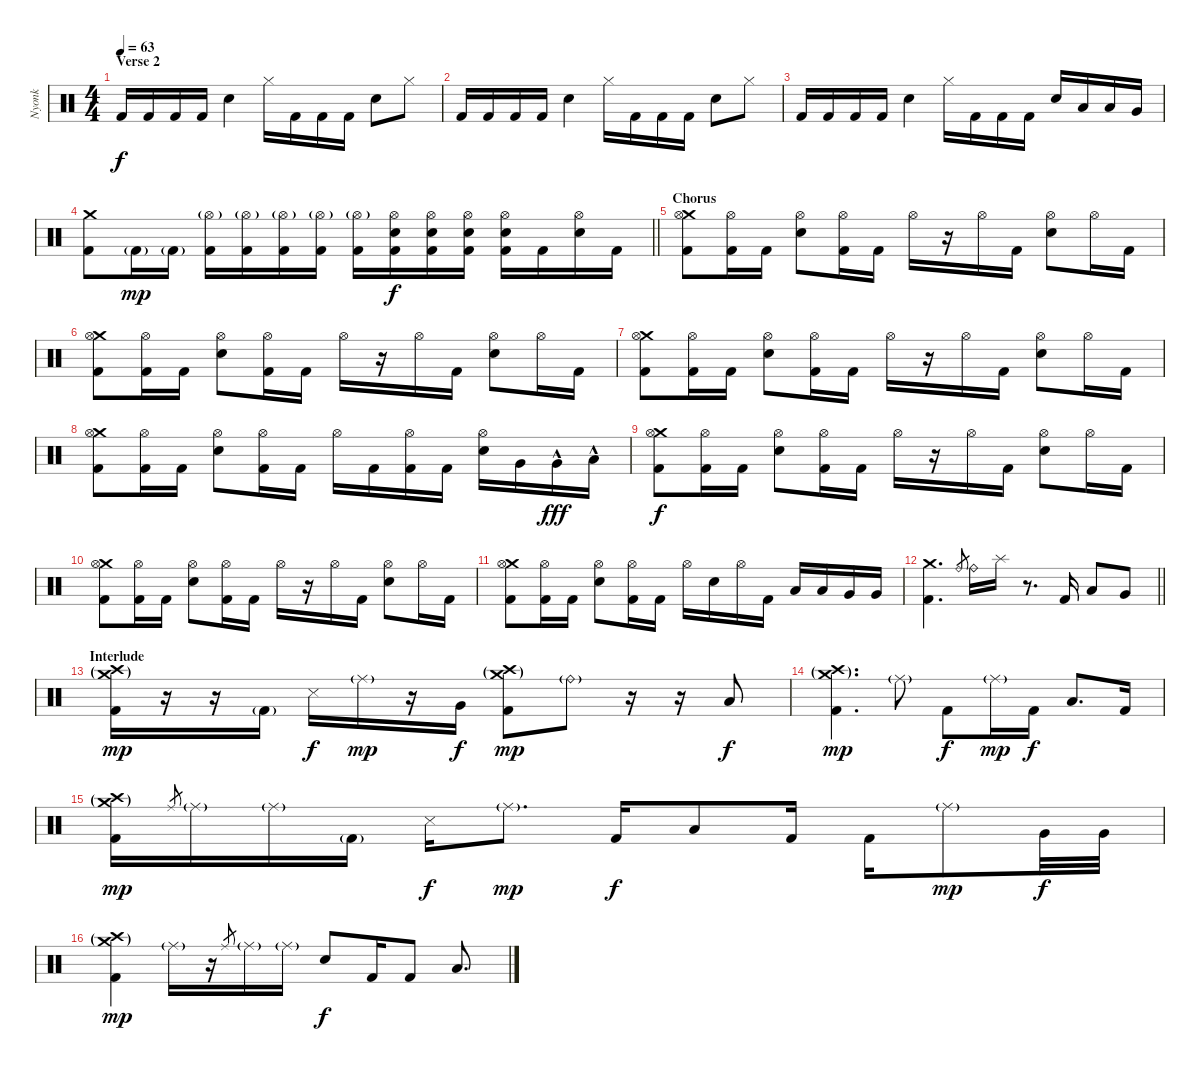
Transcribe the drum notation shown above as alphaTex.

\track ("Nyonk" "Nyonk") {instrument percussion}
\staff {score}
\articulation defaults
\ts (4 4)
\section ("" "Verse 2")
\tempo 63
\clef neutral
\ks c "Kick (hit) 2".16{dy f} "Kick (hit) 2".16 "Kick (hit) 2".16 "Kick (hit) 2".16 "Electric Snare (hit)".4 "Hi-Hat (closed)".16 "Kick (hit) 2".16 "Kick (hit) 2".16 "Kick (hit) 2".16 "Electric Snare (hit)".8 "Hi-Hat (closed)".8
|
"Kick (hit) 2".16 "Kick (hit) 2".16 "Kick (hit) 2".16 "Kick (hit) 2".16 "Electric Snare (hit)".4 "Hi-Hat (closed)".16 "Kick (hit) 2".16 "Kick (hit) 2".16 "Kick (hit) 2".16 "Electric Snare (hit)".8 "Hi-Hat (closed)".8 |
"Kick (hit) 2".16 "Kick (hit) 2".16 "Kick (hit) 2".16 "Kick (hit) 2".16 "Electric Snare (hit)".4 "Hi-Hat (closed)".16 "Kick (hit) 2".16 "Kick (hit) 2".16 "Kick (hit) 2".16 "Electric Snare (hit)".16 "Low Tom (hit)".16 "Low Tom (hit)".16 "Very Low Tom (hit)".16 |
\barLineRight lightlight
("Crash medium (hit)" "Kick (hit) 2").8 "Kick (hit) 2"{g}.16{dy mp} "Kick (hit) 2"{g}.16 ("Hi-Hat (open)"{g} "Kick (hit) 2").16 ("Hi-Hat (open)"{g} "Kick (hit) 2").16 ("Hi-Hat (open)"{g} "Kick (hit) 2").16 ("Hi-Hat (open)"{g} "Kick (hit) 2").16 ("Hi-Hat (open)"{g} "Kick (hit) 2").16 ("Hi-Hat (open)" "Electric Snare (hit)" "Kick (hit) 2").16{dy f} ("Hi-Hat (open)" "Electric Snare (hit)" "Kick (hit) 2").16 ("Hi-Hat (open)" "Electric Snare (hit)" "Kick (hit) 2").16 ("Hi-Hat (open)" "Electric Snare (hit)" "Kick (hit) 2").16 "Kick (hit) 2".16 ("Hi-Hat (open)" "Electric Snare (hit)").16 "Kick (hit) 2".16 |
\section ("" "Chorus")
("Crash medium (hit)" "Hi-Hat (open)" "Kick (hit) 2").8 ("Hi-Hat (open)" "Kick (hit) 2").16 "Kick (hit) 2".16 ("Hi-Hat (open)" "Electric Snare (hit)").8 ("Hi-Hat (open)" "Kick (hit) 2").16 "Kick (hit) 2".16 "Hi-Hat (open)".16 r.16 "Hi-Hat (open)".16 "Kick (hit) 2".16 ("Hi-Hat (open)" "Electric Snare (hit)").8 "Hi-Hat (open)".16 "Kick (hit) 2".16 |
("Crash medium (hit)" "Hi-Hat (open)" "Kick (hit) 2").8 ("Hi-Hat (open)" "Kick (hit) 2").16 "Kick (hit) 2".16 ("Hi-Hat (open)" "Electric Snare (hit)").8 ("Hi-Hat (open)" "Kick (hit) 2").16 "Kick (hit) 2".16 "Hi-Hat (open)".16 r.16 "Hi-Hat (open)".16 "Kick (hit) 2".16 ("Hi-Hat (open)" "Electric Snare (hit)").8 "Hi-Hat (open)".16 "Kick (hit) 2".16 |
("Crash medium (hit)" "Hi-Hat (open)" "Kick (hit) 2").8 ("Hi-Hat (open)" "Kick (hit) 2").16 "Kick (hit) 2".16 ("Hi-Hat (open)" "Electric Snare (hit)").8 ("Hi-Hat (open)" "Kick (hit) 2").16 "Kick (hit) 2".16 "Hi-Hat (open)".16 r.16 "Hi-Hat (open)".16 "Kick (hit) 2".16 ("Hi-Hat (open)" "Electric Snare (hit)").8 "Hi-Hat (open)".16 "Kick (hit) 2".16 |
("Crash medium (hit)" "Hi-Hat (open)" "Kick (hit) 2").8 ("Hi-Hat (open)" "Kick (hit) 2").16 "Kick (hit) 2".16 ("Hi-Hat (open)" "Electric Snare (hit)").8 ("Hi-Hat (open)" "Kick (hit) 2").16 "Kick (hit) 2".16 "Hi-Hat (open)".16 "Kick (hit) 2".16 ("Hi-Hat (open)" "Kick (hit) 2").16 "Kick (hit) 2".16 ("Hi-Hat (open)" "Electric Snare (hit)").16 "Very Low Tom (hit)".16 "Very Low Tom (hit)"{hac}.16{dy fff} "Low Floor Tom (hit)"{hac}.16 |
("Crash medium (hit)" "Hi-Hat (open)" "Kick (hit) 2").8{dy f} ("Hi-Hat (open)" "Kick (hit) 2").16 "Kick (hit) 2".16 ("Hi-Hat (open)" "Electric Snare (hit)").8 ("Hi-Hat (open)" "Kick (hit) 2").16 "Kick (hit) 2".16 "Hi-Hat (open)".16 r.16 "Hi-Hat (open)".16 "Kick (hit) 2".16 ("Hi-Hat (open)" "Electric Snare (hit)").8 "Hi-Hat (open)".16 "Kick (hit) 2".16 |
("Crash medium (hit)" "Hi-Hat (open)" "Kick (hit) 2").8 ("Hi-Hat (open)" "Kick (hit) 2").16 "Kick (hit) 2".16 ("Hi-Hat (open)" "Electric Snare (hit)").8 ("Hi-Hat (open)" "Kick (hit) 2").16 "Kick (hit) 2".16 "Hi-Hat (open)".16 r.16 "Hi-Hat (open)".16 "Kick (hit) 2".16 ("Hi-Hat (open)" "Electric Snare (hit)").8 "Hi-Hat (open)".16 "Kick (hit) 2".16 |
("Crash medium (hit)" "Hi-Hat (open)" "Kick (hit) 2").8 ("Hi-Hat (open)" "Kick (hit) 2").16 "Kick (hit) 2".16 ("Hi-Hat (open)" "Electric Snare (hit)").8 ("Hi-Hat (open)" "Kick (hit) 2").16 "Kick (hit) 2".16 "Hi-Hat (open)".16 "Electric Snare (hit)".16 "Hi-Hat (open)".16 "Kick (hit) 2".16 "Low Tom (hit)".16 "Low Tom (hit)".16 "Very Low Tom (hit)".16 "Very Low Tom (hit)".16 |
\barLineRight lightlight
("Crash medium (hit)" "Kick (hit) 2").4{d} "Ride (bell)".8{gr} "Ride (bell)".16 "Splash (hit)".16 r.8{d} "Kick (hit) 2".16 "Low Tom (hit)".8 "Very Low Tom (hit)".8 |
\section ("" "Interlude")
("Crash high (hit)"{g} "Crash medium (hit)"{g} "Kick (hit) 2").16{dy mp} r.16 r.16 "Kick (hit) 2"{g}.16 "Snare (side stick) 3".16{dy f} "Ride (middle)"{g}.16{dy mp} r.16 "Very Low Tom (hit)".16{dy f} ("Crash high (hit)"{g} "Crash medium (hit)"{g} "Kick (hit) 2").8{dy mp} "Ride (bell)"{g}.8 r.16 r.16 "Low Tom (hit)".8{dy f} |
("Crash high (hit)"{g} "Crash medium (hit)"{g} "Kick (hit) 2").4{d dy mp} "Ride (middle)"{g}.8 "Kick (hit) 2".8{dy f} "Ride (middle)"{g}.16{dy mp} "Kick (hit) 2".16{dy f} "Low Tom (hit)".8{d} "Kick (hit) 2".16 |
("Crash medium (hit)"{g} "Crash high (hit)"{g} "Kick (hit) 2").16{dy mp} "Ride (middle)".8{gr} "Ride (middle)"{g}.16 "Ride (middle)"{g}.16 "Kick (hit) 2"{g}.16 "Snare (side stick) 3".16{dy f} "Ride (middle)"{g}.8{d dy mp} "Kick (hit) 2".16{dy f} "Low Tom (hit)".8 "Kick (hit) 2".16 "Kick (hit) 2".16 "Ride (middle)"{g}.8{dy mp} "Very Low Tom (hit)".32{dy f} "Very Low Tom (hit)".32 |
("Crash medium (hit)"{g} "Crash high (hit)"{g} "Kick (hit) 2").4{dy mp} "Ride (middle)"{g}.16 r.16 "Ride (middle)".8{gr} "Ride (middle)"{g}.16 "Ride (middle)"{g}.16 "Electric Snare (hit)".8{dy f} "Kick (hit) 2".16 "Kick (hit) 2".8 "Low Tom (hit)".8{d}
